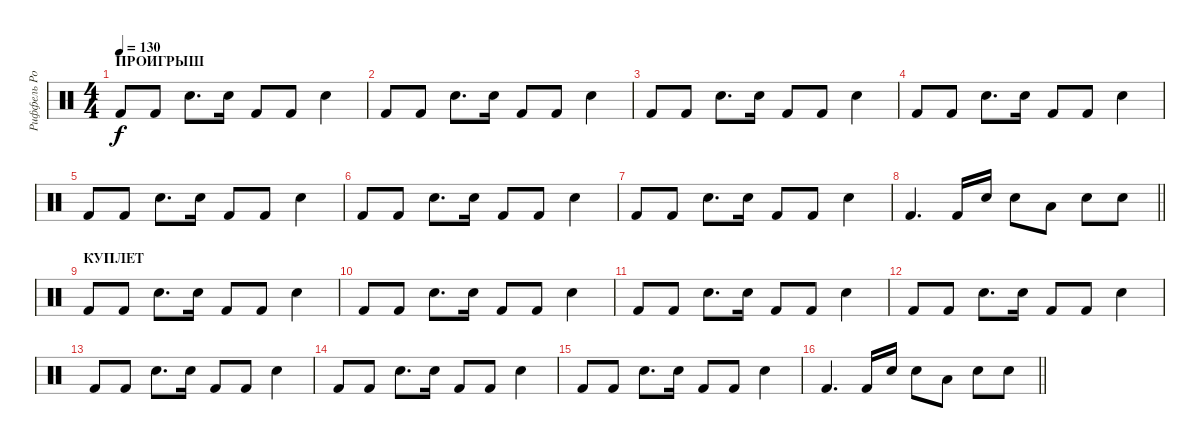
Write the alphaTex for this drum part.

\track ("Риффель Роман(Главные)" "Риффель Ро") {instrument percussion}
\staff {score}
\articulation defaults
\ts (4 4)
\section ("" "ПРОИГРЫШ")
\tempo 130
\clef neutral
\ks c "Kick (hit) 2".8{dy f} "Kick (hit) 2".8 "Electric Snare (hit)".8{d} "Electric Snare (hit)".16 "Kick (hit) 2".8 "Kick (hit) 2".8 "Electric Snare (hit)".4
|
"Kick (hit) 2".8 "Kick (hit) 2".8 "Electric Snare (hit)".8{d} "Electric Snare (hit)".16 "Kick (hit) 2".8 "Kick (hit) 2".8 "Electric Snare (hit)".4 |
"Kick (hit) 2".8 "Kick (hit) 2".8 "Electric Snare (hit)".8{d} "Electric Snare (hit)".16 "Kick (hit) 2".8 "Kick (hit) 2".8 "Electric Snare (hit)".4 |
"Kick (hit) 2".8 "Kick (hit) 2".8 "Electric Snare (hit)".8{d} "Electric Snare (hit)".16 "Kick (hit) 2".8 "Kick (hit) 2".8 "Electric Snare (hit)".4 |
"Kick (hit) 2".8 "Kick (hit) 2".8 "Electric Snare (hit)".8{d} "Electric Snare (hit)".16 "Kick (hit) 2".8 "Kick (hit) 2".8 "Electric Snare (hit)".4 |
"Kick (hit) 2".8 "Kick (hit) 2".8 "Electric Snare (hit)".8{d} "Electric Snare (hit)".16 "Kick (hit) 2".8 "Kick (hit) 2".8 "Electric Snare (hit)".4 |
"Kick (hit) 2".8 "Kick (hit) 2".8 "Electric Snare (hit)".8{d} "Electric Snare (hit)".16 "Kick (hit) 2".8 "Kick (hit) 2".8 "Electric Snare (hit)".4 |
\barLineRight lightlight "Kick (hit) 2".4{d} "Kick (hit) 2".16 "Electric Snare (hit)".16 "Electric Snare (hit)".8 "Low Tom (hit)".8 "Electric Snare (hit)".8 "Electric Snare (hit)".8
|
\section ("" "КУПЛЕТ")
"Kick (hit) 2".8 "Kick (hit) 2".8 "Electric Snare (hit)".8{d} "Electric Snare (hit)".16 "Kick (hit) 2".8 "Kick (hit) 2".8 "Electric Snare (hit)".4 |
"Kick (hit) 2".8 "Kick (hit) 2".8 "Electric Snare (hit)".8{d} "Electric Snare (hit)".16 "Kick (hit) 2".8 "Kick (hit) 2".8 "Electric Snare (hit)".4 |
"Kick (hit) 2".8 "Kick (hit) 2".8 "Electric Snare (hit)".8{d} "Electric Snare (hit)".16 "Kick (hit) 2".8 "Kick (hit) 2".8 "Electric Snare (hit)".4 |
"Kick (hit) 2".8 "Kick (hit) 2".8 "Electric Snare (hit)".8{d} "Electric Snare (hit)".16 "Kick (hit) 2".8 "Kick (hit) 2".8 "Electric Snare (hit)".4 |
"Kick (hit) 2".8 "Kick (hit) 2".8 "Electric Snare (hit)".8{d} "Electric Snare (hit)".16 "Kick (hit) 2".8 "Kick (hit) 2".8 "Electric Snare (hit)".4 |
"Kick (hit) 2".8 "Kick (hit) 2".8 "Electric Snare (hit)".8{d} "Electric Snare (hit)".16 "Kick (hit) 2".8 "Kick (hit) 2".8 "Electric Snare (hit)".4 |
"Kick (hit) 2".8 "Kick (hit) 2".8 "Electric Snare (hit)".8{d} "Electric Snare (hit)".16 "Kick (hit) 2".8 "Kick (hit) 2".8 "Electric Snare (hit)".4 |
\barLineRight lightlight "Kick (hit) 2".4{d} "Kick (hit) 2".16 "Electric Snare (hit)".16 "Electric Snare (hit)".8 "Low Tom (hit)".8 "Electric Snare (hit)".8 "Electric Snare (hit)".8
